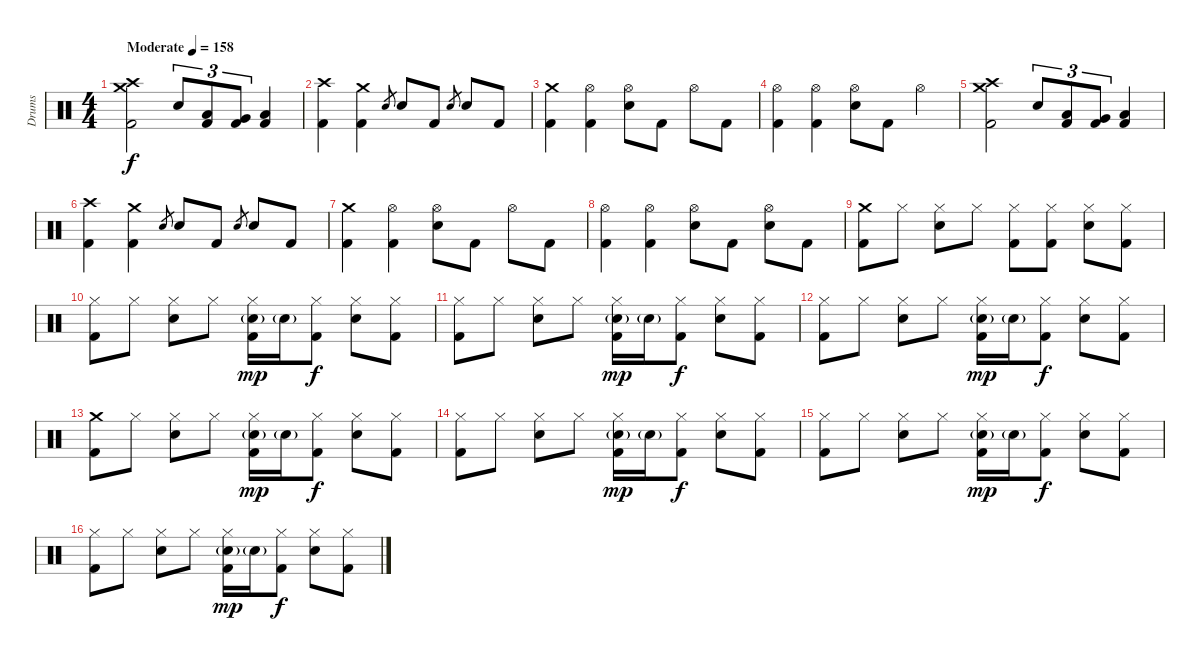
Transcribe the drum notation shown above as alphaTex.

\track ("Drums" "Drums") {instrument percussion}
\staff {score}
\articulation defaults
\ts (4 4)
\tempo (158 "Moderate")
\clef neutral
\ks c
("Crash medium (hit)" "Crash high (hit)" "Kick (hit) 2").2{dy f} "Electric Snare (hit)".8{tu (3 2)} ("Low Tom (hit)" "Kick (hit) 2").8{tu (3 2)} ("Very Low Tom (hit)" "Kick (hit) 2").8{tu (3 2)} ("Low Floor Tom (hit)" "Kick (hit) 2").4 |
("Crash high (hit)" "Kick (hit) 2").4 ("Crash medium (hit)" "Kick (hit) 2").4 "Electric Snare (hit)".8{gr} "Electric Snare (hit)".8 "Kick (hit) 2".8 "Electric Snare (hit)".8{gr} "Electric Snare (hit)".8 "Kick (hit) 2".8 |
("Crash medium (hit)" "Kick (hit) 2").4 ("Hi-Hat (open)" "Kick (hit) 2").4 ("Hi-Hat (open)" "Electric Snare (hit)").8 "Kick (hit) 2".8 "Hi-Hat (open)".8 "Kick (hit) 2".8 |
("Hi-Hat (open)" "Kick (hit) 2").4 ("Hi-Hat (open)" "Kick (hit) 2").4 ("Hi-Hat (open)" "Electric Snare (hit)").8 "Kick (hit) 2".8 "Hi-Hat (open)".4 |
("Crash medium (hit)" "Crash high (hit)" "Kick (hit) 2").2 "Electric Snare (hit)".8{tu (3 2)} ("Low Tom (hit)" "Kick (hit) 2").8{tu (3 2)} ("Very Low Tom (hit)" "Kick (hit) 2").8{tu (3 2)} ("Low Floor Tom (hit)" "Kick (hit) 2").4 |
("Crash high (hit)" "Kick (hit) 2").4 ("Crash medium (hit)" "Kick (hit) 2").4 "Electric Snare (hit)".8{gr} "Electric Snare (hit)".8 "Kick (hit) 2".8 "Electric Snare (hit)".8{gr} "Electric Snare (hit)".8 "Kick (hit) 2".8 |
("Crash medium (hit)" "Kick (hit) 2").4 ("Hi-Hat (open)" "Kick (hit) 2").4 ("Hi-Hat (open)" "Electric Snare (hit)").8 "Kick (hit) 2".8 "Hi-Hat (open)".8 "Kick (hit) 2".8 |
("Hi-Hat (open)" "Kick (hit) 2").4 ("Hi-Hat (open)" "Kick (hit) 2").4 ("Hi-Hat (open)" "Electric Snare (hit)").8 "Kick (hit) 2".8 ("Hi-Hat (open)" "Electric Snare (hit)").8 "Kick (hit) 2".8 |
("Crash medium (hit)" "Kick (hit) 2").8 "Hi-Hat (closed)".8 ("Hi-Hat (closed)" "Electric Snare (hit)").8 "Hi-Hat (closed)".8 ("Hi-Hat (closed)" "Kick (hit) 2").8 ("Hi-Hat (closed)" "Kick (hit) 2").8 ("Hi-Hat (closed)" "Electric Snare (hit)").8 ("Hi-Hat (closed)" "Kick (hit) 2").8 |
("Hi-Hat (closed)" "Kick (hit) 2").8 "Hi-Hat (closed)".8 ("Hi-Hat (closed)" "Electric Snare (hit)").8 "Hi-Hat (closed)".8 ("Hi-Hat (closed)" "Electric Snare (hit)"{g} "Kick (hit) 2").16{dy mp} "Electric Snare (hit)"{g}.16 ("Hi-Hat (closed)" "Kick (hit) 2").8{dy f} ("Hi-Hat (closed)" "Electric Snare (hit)").8 ("Hi-Hat (closed)" "Kick (hit) 2").8 |
("Hi-Hat (closed)" "Kick (hit) 2").8 "Hi-Hat (closed)".8 ("Hi-Hat (closed)" "Electric Snare (hit)").8 "Hi-Hat (closed)".8 ("Hi-Hat (closed)" "Electric Snare (hit)"{g} "Kick (hit) 2").16{dy mp} "Electric Snare (hit)"{g}.16 ("Hi-Hat (closed)" "Kick (hit) 2").8{dy f} ("Hi-Hat (closed)" "Electric Snare (hit)").8 ("Hi-Hat (closed)" "Kick (hit) 2").8 |
("Hi-Hat (closed)" "Kick (hit) 2").8 "Hi-Hat (closed)".8 ("Hi-Hat (closed)" "Electric Snare (hit)").8 "Hi-Hat (closed)".8 ("Hi-Hat (closed)" "Electric Snare (hit)"{g} "Kick (hit) 2").16{dy mp} "Electric Snare (hit)"{g}.16 ("Hi-Hat (closed)" "Kick (hit) 2").8{dy f} ("Hi-Hat (closed)" "Electric Snare (hit)").8 ("Hi-Hat (closed)" "Kick (hit) 2").8 |
("Crash medium (hit)" "Kick (hit) 2").8 "Hi-Hat (closed)".8 ("Hi-Hat (closed)" "Electric Snare (hit)").8 "Hi-Hat (closed)".8 ("Hi-Hat (closed)" "Electric Snare (hit)"{g} "Kick (hit) 2").16{dy mp} "Electric Snare (hit)"{g}.16 ("Hi-Hat (closed)" "Kick (hit) 2").8{dy f} ("Hi-Hat (closed)" "Electric Snare (hit)").8 ("Hi-Hat (closed)" "Kick (hit) 2").8 |
("Hi-Hat (closed)" "Kick (hit) 2").8 "Hi-Hat (closed)".8 ("Hi-Hat (closed)" "Electric Snare (hit)").8 "Hi-Hat (closed)".8 ("Hi-Hat (closed)" "Electric Snare (hit)"{g} "Kick (hit) 2").16{dy mp} "Electric Snare (hit)"{g}.16 ("Hi-Hat (closed)" "Kick (hit) 2").8{dy f} ("Hi-Hat (closed)" "Electric Snare (hit)").8 ("Hi-Hat (closed)" "Kick (hit) 2").8 |
("Hi-Hat (closed)" "Kick (hit) 2").8 "Hi-Hat (closed)".8 ("Hi-Hat (closed)" "Electric Snare (hit)").8 "Hi-Hat (closed)".8 ("Hi-Hat (closed)" "Electric Snare (hit)"{g} "Kick (hit) 2").16{dy mp} "Electric Snare (hit)"{g}.16 ("Hi-Hat (closed)" "Kick (hit) 2").8{dy f} ("Hi-Hat (closed)" "Electric Snare (hit)").8 ("Hi-Hat (closed)" "Kick (hit) 2").8 |
("Hi-Hat (closed)" "Kick (hit) 2").8 "Hi-Hat (closed)".8 ("Hi-Hat (closed)" "Electric Snare (hit)").8 "Hi-Hat (closed)".8 ("Hi-Hat (closed)" "Electric Snare (hit)"{g} "Kick (hit) 2").16{dy mp} "Electric Snare (hit)"{g}.16 ("Hi-Hat (closed)" "Kick (hit) 2").8{dy f} ("Hi-Hat (closed)" "Electric Snare (hit)").8 ("Hi-Hat (closed)" "Kick (hit) 2").8
